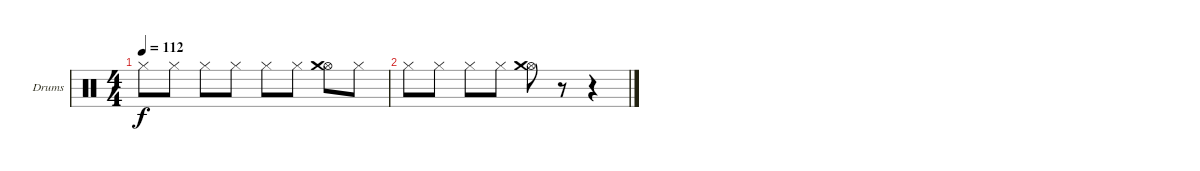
\bracketExtendMode groupsimilarinstruments
\firstSystemTrackNameOrientation horizontal
\otherSystemsTrackNameOrientation horizontal
\track ("Drumkit" "Drums") {instrument percussion}
\staff {score}
\articulation defaults
\ts (4 4)
\tempo 112
\clef neutral
\ks c "Hi-Hat (closed)".8{dy f} "Hi-Hat (closed)".8 "Hi-Hat (closed)".8 "Hi-Hat (closed)".8 "Hi-Hat (closed)".8 "Hi-Hat (closed)".8
("Hi-Hat (open)" "Crash medium (hit)").8 "Hi-Hat (closed)".8 |
"Hi-Hat (closed)".8 "Hi-Hat (closed)".8 "Hi-Hat (closed)".8 "Hi-Hat (closed)".8 ("Hi-Hat (open)" "Crash medium (hit)").8 r.8 r.4
